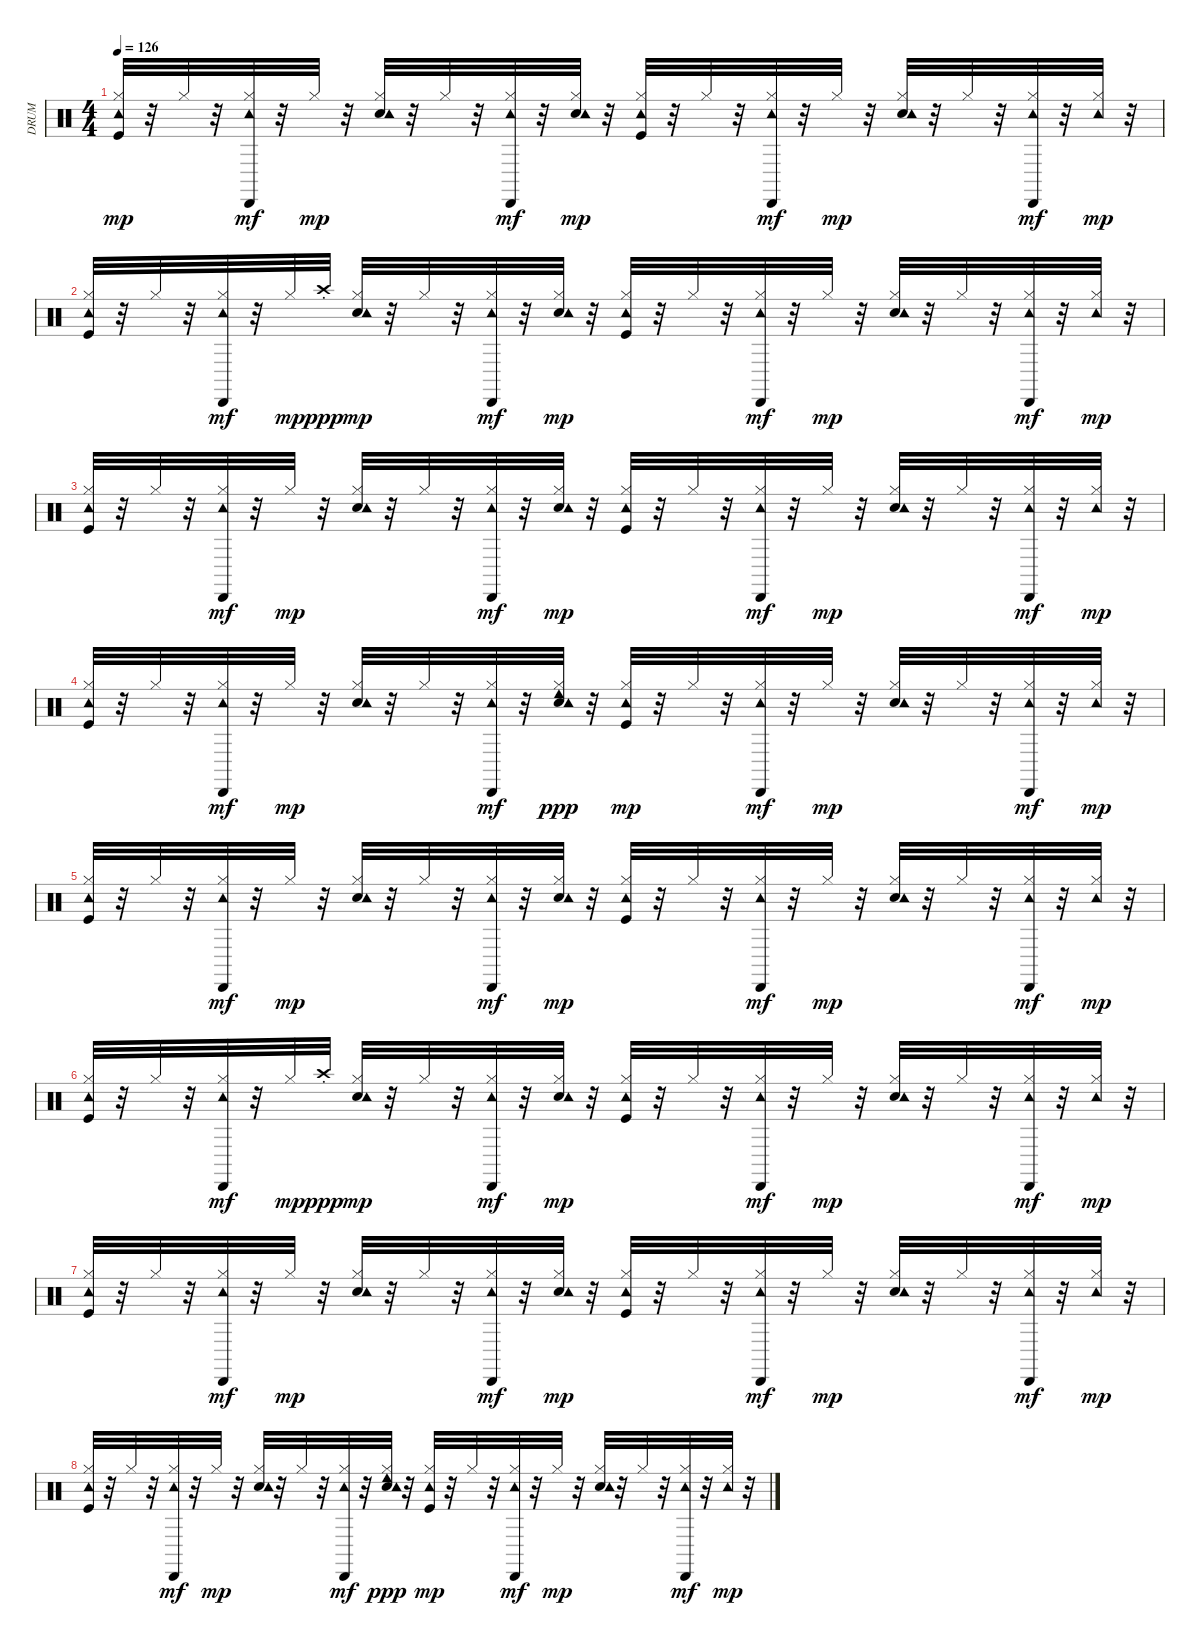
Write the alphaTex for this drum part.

\track ("DRUM" "DRUM") {instrument percussion}
\staff {score}
\articulation defaults
\ts (4 4)
\tempo 126
\clef neutral
\ks c
("Kick (hit)" "Hi-Hat (closed)" "Tambourine (hit)").32{dy mp} r.32 "Hi-Hat (closed)".32 r.32 ("Hi-Hat (closed)" "Tambourine (hit)" "Cabasa (hit)").32{dy mf} r.32 "Hi-Hat (closed)".32{dy mp} r.32 ("Snare (hit) 2" "Hi-Hat (closed)" "Tambourine (hit)").32 r.32 "Hi-Hat (closed)".32 r.32 ("Hi-Hat (closed)" "Tambourine (hit)" "Cabasa (hit)").32{dy mf} r.32 ("Snare (hit) 2" "Hi-Hat (closed)" "Tambourine (hit)").32{dy mp} r.32 ("Kick (hit)" "Hi-Hat (closed)" "Tambourine (hit)").32 r.32 "Hi-Hat (closed)".32 r.32 ("Hi-Hat (closed)" "Tambourine (hit)" "Cabasa (hit)").32{dy mf} r.32 "Hi-Hat (closed)".32{dy mp} r.32 ("Snare (hit) 2" "Hi-Hat (closed)" "Tambourine (hit)").32 r.32 "Hi-Hat (closed)".32 r.32 ("Hi-Hat (closed)" "Tambourine (hit)" "Cabasa (hit)").32{dy mf} r.32 ("Hi-Hat (closed)" "Tambourine (hit)").32{dy mp} r.32 |
("Kick (hit)" "Hi-Hat (closed)" "Tambourine (hit)").32 r.32 "Hi-Hat (closed)".32 r.32 ("Hi-Hat (closed)" "Tambourine (hit)" "Cabasa (hit)").32{dy mf} r.32 "Hi-Hat (closed)".32{dy mp} "Crash high (choke)".32{dy ppp} ("Snare (hit) 2" "Hi-Hat (closed)" "Tambourine (hit)").32{dy mp} r.32 "Hi-Hat (closed)".32 r.32 ("Hi-Hat (closed)" "Tambourine (hit)" "Cabasa (hit)").32{dy mf} r.32 ("Snare (hit) 2" "Hi-Hat (closed)" "Tambourine (hit)").32{dy mp} r.32 ("Kick (hit)" "Hi-Hat (closed)" "Tambourine (hit)").32 r.32 "Hi-Hat (closed)".32 r.32 ("Hi-Hat (closed)" "Tambourine (hit)" "Cabasa (hit)").32{dy mf} r.32 "Hi-Hat (closed)".32{dy mp} r.32 ("Snare (hit) 2" "Hi-Hat (closed)" "Tambourine (hit)").32 r.32 "Hi-Hat (closed)".32 r.32 ("Hi-Hat (closed)" "Tambourine (hit)" "Cabasa (hit)").32{dy mf} r.32 ("Hi-Hat (closed)" "Tambourine (hit)").32{dy mp} r.32 |
("Kick (hit)" "Hi-Hat (closed)" "Tambourine (hit)").32 r.32 "Hi-Hat (closed)".32 r.32 ("Hi-Hat (closed)" "Tambourine (hit)" "Cabasa (hit)").32{dy mf} r.32 "Hi-Hat (closed)".32{dy mp} r.32 ("Snare (hit) 2" "Hi-Hat (closed)" "Tambourine (hit)").32 r.32 "Hi-Hat (closed)".32 r.32 ("Hi-Hat (closed)" "Tambourine (hit)" "Cabasa (hit)").32{dy mf} r.32 ("Snare (hit) 2" "Hi-Hat (closed)" "Tambourine (hit)").32{dy mp} r.32 ("Kick (hit)" "Hi-Hat (closed)" "Tambourine (hit)").32 r.32 "Hi-Hat (closed)".32 r.32 ("Hi-Hat (closed)" "Tambourine (hit)" "Cabasa (hit)").32{dy mf} r.32 "Hi-Hat (closed)".32{dy mp} r.32 ("Snare (hit) 2" "Hi-Hat (closed)" "Tambourine (hit)").32 r.32 "Hi-Hat (closed)".32 r.32 ("Hi-Hat (closed)" "Tambourine (hit)" "Cabasa (hit)").32{dy mf} r.32 ("Hi-Hat (closed)" "Tambourine (hit)").32{dy mp} r.32 |
("Kick (hit)" "Hi-Hat (closed)" "Tambourine (hit)").32 r.32 "Hi-Hat (closed)".32 r.32 ("Hi-Hat (closed)" "Tambourine (hit)" "Cabasa (hit)").32{dy mf} r.32 "Hi-Hat (closed)".32{dy mp} r.32 ("Snare (hit) 2" "Hi-Hat (closed)" "Tambourine (hit)").32 r.32 "Hi-Hat (closed)".32 r.32 ("Hi-Hat (closed)" "Tambourine (hit)" "Cabasa (hit)").32{dy mf} r.32 ("Snare (hit) 2" "Hi-Hat (closed)" "Tambourine (hit)" "Cowbell low (hit)").32{dy ppp} r.32 ("Kick (hit)" "Hi-Hat (closed)" "Tambourine (hit)").32{dy mp} r.32 "Hi-Hat (closed)".32 r.32 ("Hi-Hat (closed)" "Tambourine (hit)" "Cabasa (hit)").32{dy mf} r.32 "Hi-Hat (closed)".32{dy mp} r.32 ("Snare (hit) 2" "Hi-Hat (closed)" "Tambourine (hit)").32 r.32 "Hi-Hat (closed)".32 r.32 ("Hi-Hat (closed)" "Tambourine (hit)" "Cabasa (hit)").32{dy mf} r.32 ("Hi-Hat (closed)" "Tambourine (hit)").32{dy mp} r.32 |
("Kick (hit)" "Hi-Hat (closed)" "Tambourine (hit)").32 r.32 "Hi-Hat (closed)".32 r.32 ("Hi-Hat (closed)" "Tambourine (hit)" "Cabasa (hit)").32{dy mf} r.32 "Hi-Hat (closed)".32{dy mp} r.32 ("Snare (hit) 2" "Hi-Hat (closed)" "Tambourine (hit)").32 r.32 "Hi-Hat (closed)".32 r.32 ("Hi-Hat (closed)" "Tambourine (hit)" "Cabasa (hit)").32{dy mf} r.32 ("Snare (hit) 2" "Hi-Hat (closed)" "Tambourine (hit)").32{dy mp} r.32 ("Kick (hit)" "Hi-Hat (closed)" "Tambourine (hit)").32 r.32 "Hi-Hat (closed)".32 r.32 ("Hi-Hat (closed)" "Tambourine (hit)" "Cabasa (hit)").32{dy mf} r.32 "Hi-Hat (closed)".32{dy mp} r.32 ("Snare (hit) 2" "Hi-Hat (closed)" "Tambourine (hit)").32 r.32 "Hi-Hat (closed)".32 r.32 ("Hi-Hat (closed)" "Tambourine (hit)" "Cabasa (hit)").32{dy mf} r.32 ("Hi-Hat (closed)" "Tambourine (hit)").32{dy mp} r.32 |
("Kick (hit)" "Hi-Hat (closed)" "Tambourine (hit)").32 r.32 "Hi-Hat (closed)".32 r.32 ("Hi-Hat (closed)" "Tambourine (hit)" "Cabasa (hit)").32{dy mf} r.32 "Hi-Hat (closed)".32{dy mp} "Crash high (choke)".32{dy ppp} ("Snare (hit) 2" "Hi-Hat (closed)" "Tambourine (hit)").32{dy mp} r.32 "Hi-Hat (closed)".32 r.32 ("Hi-Hat (closed)" "Tambourine (hit)" "Cabasa (hit)").32{dy mf} r.32 ("Snare (hit) 2" "Hi-Hat (closed)" "Tambourine (hit)").32{dy mp} r.32 ("Kick (hit)" "Hi-Hat (closed)" "Tambourine (hit)").32 r.32 "Hi-Hat (closed)".32 r.32 ("Hi-Hat (closed)" "Tambourine (hit)" "Cabasa (hit)").32{dy mf} r.32 "Hi-Hat (closed)".32{dy mp} r.32 ("Snare (hit) 2" "Hi-Hat (closed)" "Tambourine (hit)").32 r.32 "Hi-Hat (closed)".32 r.32 ("Hi-Hat (closed)" "Tambourine (hit)" "Cabasa (hit)").32{dy mf} r.32 ("Hi-Hat (closed)" "Tambourine (hit)").32{dy mp} r.32 |
("Kick (hit)" "Hi-Hat (closed)" "Tambourine (hit)").32 r.32 "Hi-Hat (closed)".32 r.32 ("Hi-Hat (closed)" "Tambourine (hit)" "Cabasa (hit)").32{dy mf} r.32 "Hi-Hat (closed)".32{dy mp} r.32 ("Snare (hit) 2" "Hi-Hat (closed)" "Tambourine (hit)").32 r.32 "Hi-Hat (closed)".32 r.32 ("Hi-Hat (closed)" "Tambourine (hit)" "Cabasa (hit)").32{dy mf} r.32 ("Snare (hit) 2" "Hi-Hat (closed)" "Tambourine (hit)").32{dy mp} r.32 ("Kick (hit)" "Hi-Hat (closed)" "Tambourine (hit)").32 r.32 "Hi-Hat (closed)".32 r.32 ("Hi-Hat (closed)" "Tambourine (hit)" "Cabasa (hit)").32{dy mf} r.32 "Hi-Hat (closed)".32{dy mp} r.32 ("Snare (hit) 2" "Hi-Hat (closed)" "Tambourine (hit)").32 r.32 "Hi-Hat (closed)".32 r.32 ("Hi-Hat (closed)" "Tambourine (hit)" "Cabasa (hit)").32{dy mf} r.32 ("Hi-Hat (closed)" "Tambourine (hit)").32{dy mp} r.32 |
("Kick (hit)" "Hi-Hat (closed)" "Tambourine (hit)").32 r.32 "Hi-Hat (closed)".32 r.32 ("Hi-Hat (closed)" "Tambourine (hit)" "Cabasa (hit)").32{dy mf} r.32 "Hi-Hat (closed)".32{dy mp} r.32 ("Snare (hit) 2" "Hi-Hat (closed)" "Tambourine (hit)").32 r.32 "Hi-Hat (closed)".32 r.32 ("Hi-Hat (closed)" "Tambourine (hit)" "Cabasa (hit)").32{dy mf} r.32 ("Snare (hit) 2" "Hi-Hat (closed)" "Tambourine (hit)" "Cowbell low (hit)").32{dy ppp} r.32 ("Kick (hit)" "Hi-Hat (closed)" "Tambourine (hit)").32{dy mp} r.32 "Hi-Hat (closed)".32 r.32 ("Hi-Hat (closed)" "Tambourine (hit)" "Cabasa (hit)").32{dy mf} r.32 "Hi-Hat (closed)".32{dy mp} r.32 ("Snare (hit) 2" "Hi-Hat (closed)" "Tambourine (hit)").32 r.32 "Hi-Hat (closed)".32 r.32 ("Hi-Hat (closed)" "Tambourine (hit)" "Cabasa (hit)").32{dy mf} r.32 ("Hi-Hat (closed)" "Tambourine (hit)").32{dy mp} r.32
